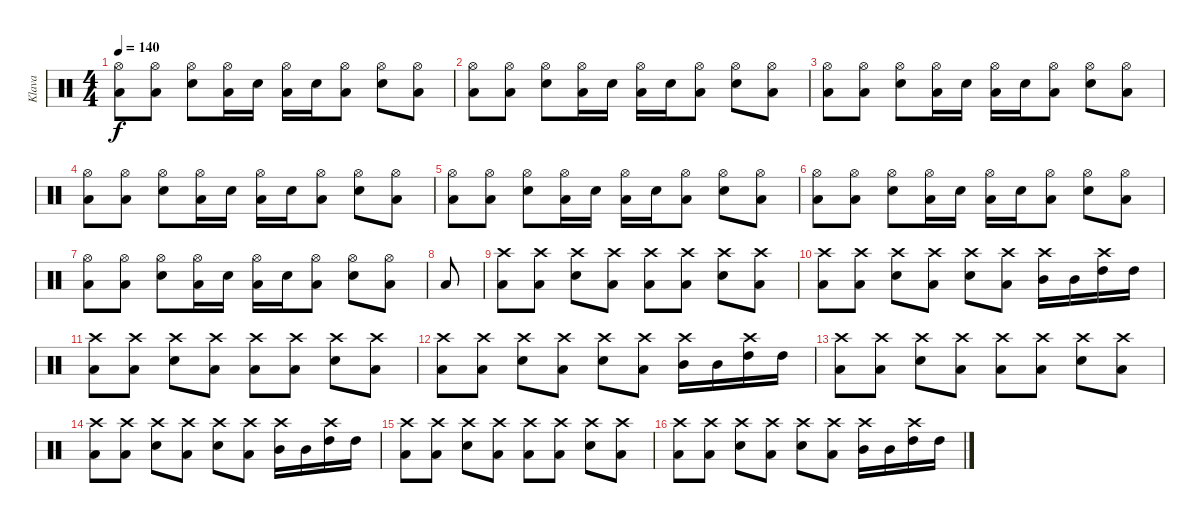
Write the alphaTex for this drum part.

\track ("Klava" "Klava") {instrument percussion}
\staff {score}
\articulation defaults
\ts (4 4)
\tempo 140
\clef neutral
\ks c
("Low Tom (hit)" "Hi-Hat (open)").8{dy f} ("Low Tom (hit)" "Hi-Hat (open)").8 ("Electric Snare (hit)" "Hi-Hat (open)").8 ("Low Tom (hit)" "Hi-Hat (open)").16 "Electric Snare (hit)".16 ("Low Tom (hit)" "Hi-Hat (open)").16 "Electric Snare (hit)".16 ("Low Tom (hit)" "Hi-Hat (open)").8 ("Electric Snare (hit)" "Hi-Hat (open)").8 ("Low Tom (hit)" "Hi-Hat (open)").8 |
("Low Tom (hit)" "Hi-Hat (open)").8 ("Low Tom (hit)" "Hi-Hat (open)").8 ("Electric Snare (hit)" "Hi-Hat (open)").8 ("Low Tom (hit)" "Hi-Hat (open)").16 "Electric Snare (hit)".16 ("Low Tom (hit)" "Hi-Hat (open)").16 "Electric Snare (hit)".16 ("Low Tom (hit)" "Hi-Hat (open)").8 ("Electric Snare (hit)" "Hi-Hat (open)").8 ("Low Tom (hit)" "Hi-Hat (open)").8 |
("Low Tom (hit)" "Hi-Hat (open)").8 ("Low Tom (hit)" "Hi-Hat (open)").8 ("Electric Snare (hit)" "Hi-Hat (open)").8 ("Low Tom (hit)" "Hi-Hat (open)").16 "Electric Snare (hit)".16 ("Low Tom (hit)" "Hi-Hat (open)").16 "Electric Snare (hit)".16 ("Low Tom (hit)" "Hi-Hat (open)").8 ("Electric Snare (hit)" "Hi-Hat (open)").8 ("Low Tom (hit)" "Hi-Hat (open)").8 |
("Low Tom (hit)" "Hi-Hat (open)").8 ("Low Tom (hit)" "Hi-Hat (open)").8 ("Electric Snare (hit)" "Hi-Hat (open)").8 ("Low Tom (hit)" "Hi-Hat (open)").16 "Electric Snare (hit)".16 ("Low Tom (hit)" "Hi-Hat (open)").16 "Electric Snare (hit)".16 ("Low Tom (hit)" "Hi-Hat (open)").8 ("Electric Snare (hit)" "Hi-Hat (open)").8 ("Low Tom (hit)" "Hi-Hat (open)").8 |
("Low Tom (hit)" "Hi-Hat (open)").8 ("Low Tom (hit)" "Hi-Hat (open)").8 ("Electric Snare (hit)" "Hi-Hat (open)").8 ("Low Tom (hit)" "Hi-Hat (open)").16 "Electric Snare (hit)".16 ("Low Tom (hit)" "Hi-Hat (open)").16 "Electric Snare (hit)".16 ("Low Tom (hit)" "Hi-Hat (open)").8 ("Electric Snare (hit)" "Hi-Hat (open)").8 ("Low Tom (hit)" "Hi-Hat (open)").8 |
("Low Tom (hit)" "Hi-Hat (open)").8 ("Low Tom (hit)" "Hi-Hat (open)").8 ("Electric Snare (hit)" "Hi-Hat (open)").8 ("Low Tom (hit)" "Hi-Hat (open)").16 "Electric Snare (hit)".16 ("Low Tom (hit)" "Hi-Hat (open)").16 "Electric Snare (hit)".16 ("Low Tom (hit)" "Hi-Hat (open)").8 ("Electric Snare (hit)" "Hi-Hat (open)").8 ("Low Tom (hit)" "Hi-Hat (open)").8 |
("Low Tom (hit)" "Hi-Hat (open)").8 ("Low Tom (hit)" "Hi-Hat (open)").8 ("Electric Snare (hit)" "Hi-Hat (open)").8 ("Low Tom (hit)" "Hi-Hat (open)").16 "Electric Snare (hit)".16 ("Low Tom (hit)" "Hi-Hat (open)").16 "Electric Snare (hit)".16 ("Low Tom (hit)" "Hi-Hat (open)").8 ("Electric Snare (hit)" "Hi-Hat (open)").8 ("Low Tom (hit)" "Hi-Hat (open)").8 |
"Low Tom (hit)".8 |
("Crash high (hit)" "Low Tom (hit)").8 ("Crash high (hit)" "Low Tom (hit)").8 ("Crash high (hit)" "Electric Snare (hit)").8 ("Crash high (hit)" "Low Tom (hit)").8 ("Crash high (hit)" "Low Tom (hit)").8 ("Crash high (hit)" "Low Tom (hit)").8 ("Crash high (hit)" "Electric Snare (hit)").8 ("Crash high (hit)" "Low Tom (hit)").8 |
("Crash high (hit)" "Low Tom (hit)").8 ("Crash high (hit)" "Low Tom (hit)").8 ("Crash high (hit)" "Electric Snare (hit)").8 ("Crash high (hit)" "Low Tom (hit)").8 ("Crash high (hit)" "Electric Snare (hit)").8 ("Crash high (hit)" "Low Tom (hit)").8 ("Crash high (hit)" "Mid Tom (hit)").16 "Mid Tom (hit)".16 ("Crash high (hit)" "High Tom (hit)").16 "High Tom (hit)".16 |
("Crash high (hit)" "Low Tom (hit)").8 ("Crash high (hit)" "Low Tom (hit)").8 ("Crash high (hit)" "Electric Snare (hit)").8 ("Crash high (hit)" "Low Tom (hit)").8 ("Crash high (hit)" "Low Tom (hit)").8 ("Crash high (hit)" "Low Tom (hit)").8 ("Crash high (hit)" "Electric Snare (hit)").8 ("Crash high (hit)" "Low Tom (hit)").8 |
("Crash high (hit)" "Low Tom (hit)").8 ("Crash high (hit)" "Low Tom (hit)").8 ("Crash high (hit)" "Electric Snare (hit)").8 ("Crash high (hit)" "Low Tom (hit)").8 ("Crash high (hit)" "Electric Snare (hit)").8 ("Crash high (hit)" "Low Tom (hit)").8 ("Crash high (hit)" "Mid Tom (hit)").16 "Mid Tom (hit)".16 ("Crash high (hit)" "High Tom (hit)").16 "High Tom (hit)".16 |
("Crash high (hit)" "Low Tom (hit)").8 ("Crash high (hit)" "Low Tom (hit)").8 ("Crash high (hit)" "Electric Snare (hit)").8 ("Crash high (hit)" "Low Tom (hit)").8 ("Crash high (hit)" "Low Tom (hit)").8 ("Crash high (hit)" "Low Tom (hit)").8 ("Crash high (hit)" "Electric Snare (hit)").8 ("Crash high (hit)" "Low Tom (hit)").8 |
("Crash high (hit)" "Low Tom (hit)").8 ("Crash high (hit)" "Low Tom (hit)").8 ("Crash high (hit)" "Electric Snare (hit)").8 ("Crash high (hit)" "Low Tom (hit)").8 ("Crash high (hit)" "Electric Snare (hit)").8 ("Crash high (hit)" "Low Tom (hit)").8 ("Crash high (hit)" "Mid Tom (hit)").16 "Mid Tom (hit)".16 ("Crash high (hit)" "High Tom (hit)").16 "High Tom (hit)".16 |
("Crash high (hit)" "Low Tom (hit)").8 ("Crash high (hit)" "Low Tom (hit)").8 ("Crash high (hit)" "Electric Snare (hit)").8 ("Crash high (hit)" "Low Tom (hit)").8 ("Crash high (hit)" "Low Tom (hit)").8 ("Crash high (hit)" "Low Tom (hit)").8 ("Crash high (hit)" "Electric Snare (hit)").8 ("Crash high (hit)" "Low Tom (hit)").8 |
("Crash high (hit)" "Low Tom (hit)").8 ("Crash high (hit)" "Low Tom (hit)").8 ("Crash high (hit)" "Electric Snare (hit)").8 ("Crash high (hit)" "Low Tom (hit)").8 ("Crash high (hit)" "Electric Snare (hit)").8 ("Crash high (hit)" "Low Tom (hit)").8 ("Crash high (hit)" "Mid Tom (hit)").16 "Mid Tom (hit)".16 ("Crash high (hit)" "High Tom (hit)").16 "High Tom (hit)".16
